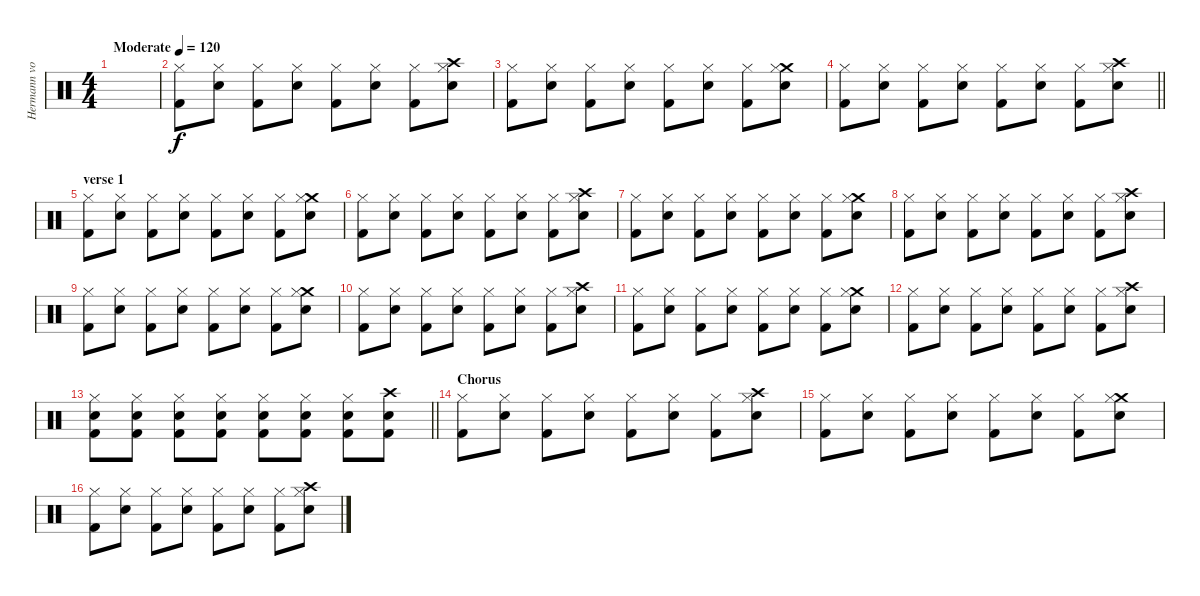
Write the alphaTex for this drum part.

\track ("Hermann von Hinten (Drums)" "Hermann vo") {instrument percussion}
\staff {score}
\articulation defaults
\ts (4 4)
\tempo (120 "Moderate")
\clef neutral
\ks c
|
("Hi-Hat (closed)" "Kick (hit) 2").8 ("Hi-Hat (closed)" "Snare (hit) 2").8 ("Hi-Hat (closed)" "Kick (hit) 2").8 ("Hi-Hat (closed)" "Snare (hit) 2").8 ("Hi-Hat (closed)" "Kick (hit) 2").8 ("Hi-Hat (closed)" "Snare (hit) 2").8 ("Hi-Hat (closed)" "Kick (hit) 2").8 ("Crash high (hit)" "Hi-Hat (closed)" "Snare (hit) 2").8 |
("Hi-Hat (closed)" "Kick (hit) 2").8 ("Hi-Hat (closed)" "Snare (hit) 2").8 ("Hi-Hat (closed)" "Kick (hit) 2").8 ("Hi-Hat (closed)" "Snare (hit) 2").8 ("Hi-Hat (closed)" "Kick (hit) 2").8 ("Hi-Hat (closed)" "Snare (hit) 2").8 ("Hi-Hat (closed)" "Kick (hit) 2").8 ("Crash medium (hit)" "Hi-Hat (closed)" "Snare (hit) 2").8 |
\barLineRight lightlight
("Hi-Hat (closed)" "Kick (hit) 2").8 ("Hi-Hat (closed)" "Snare (hit) 2").8 ("Hi-Hat (closed)" "Kick (hit) 2").8 ("Hi-Hat (closed)" "Snare (hit) 2").8 ("Hi-Hat (closed)" "Kick (hit) 2").8 ("Hi-Hat (closed)" "Snare (hit) 2").8 ("Hi-Hat (closed)" "Kick (hit) 2").8 ("Crash high (hit)" "Hi-Hat (closed)" "Snare (hit) 2").8 |
\section ("" "verse 1")
("Hi-Hat (closed)" "Kick (hit) 2").8 ("Hi-Hat (closed)" "Snare (hit) 2").8 ("Hi-Hat (closed)" "Kick (hit) 2").8 ("Hi-Hat (closed)" "Snare (hit) 2").8 ("Hi-Hat (closed)" "Kick (hit) 2").8 ("Hi-Hat (closed)" "Snare (hit) 2").8 ("Hi-Hat (closed)" "Kick (hit) 2").8 ("Crash medium (hit)" "Hi-Hat (closed)" "Snare (hit) 2").8 |
("Hi-Hat (closed)" "Kick (hit) 2").8 ("Hi-Hat (closed)" "Snare (hit) 2").8 ("Hi-Hat (closed)" "Kick (hit) 2").8 ("Hi-Hat (closed)" "Snare (hit) 2").8 ("Hi-Hat (closed)" "Kick (hit) 2").8 ("Hi-Hat (closed)" "Snare (hit) 2").8 ("Hi-Hat (closed)" "Kick (hit) 2").8 ("Crash high (hit)" "Hi-Hat (closed)" "Snare (hit) 2").8 |
("Hi-Hat (closed)" "Kick (hit) 2").8 ("Hi-Hat (closed)" "Snare (hit) 2").8 ("Hi-Hat (closed)" "Kick (hit) 2").8 ("Hi-Hat (closed)" "Snare (hit) 2").8 ("Hi-Hat (closed)" "Kick (hit) 2").8 ("Hi-Hat (closed)" "Snare (hit) 2").8 ("Hi-Hat (closed)" "Kick (hit) 2").8 ("Crash medium (hit)" "Hi-Hat (closed)" "Snare (hit) 2").8 |
("Hi-Hat (closed)" "Kick (hit) 2").8 ("Hi-Hat (closed)" "Snare (hit) 2").8 ("Hi-Hat (closed)" "Kick (hit) 2").8 ("Hi-Hat (closed)" "Snare (hit) 2").8 ("Hi-Hat (closed)" "Kick (hit) 2").8 ("Hi-Hat (closed)" "Snare (hit) 2").8 ("Hi-Hat (closed)" "Kick (hit) 2").8 ("Crash high (hit)" "Hi-Hat (closed)" "Snare (hit) 2").8 |
("Hi-Hat (closed)" "Kick (hit) 2").8 ("Hi-Hat (closed)" "Snare (hit) 2").8 ("Hi-Hat (closed)" "Kick (hit) 2").8 ("Hi-Hat (closed)" "Snare (hit) 2").8 ("Hi-Hat (closed)" "Kick (hit) 2").8 ("Hi-Hat (closed)" "Snare (hit) 2").8 ("Hi-Hat (closed)" "Kick (hit) 2").8 ("Crash medium (hit)" "Hi-Hat (closed)" "Snare (hit) 2").8 |
("Hi-Hat (closed)" "Kick (hit) 2").8 ("Hi-Hat (closed)" "Snare (hit) 2").8 ("Hi-Hat (closed)" "Kick (hit) 2").8 ("Hi-Hat (closed)" "Snare (hit) 2").8 ("Hi-Hat (closed)" "Kick (hit) 2").8 ("Hi-Hat (closed)" "Snare (hit) 2").8 ("Hi-Hat (closed)" "Kick (hit) 2").8 ("Crash high (hit)" "Hi-Hat (closed)" "Snare (hit) 2").8 |
("Hi-Hat (closed)" "Kick (hit) 2").8 ("Hi-Hat (closed)" "Snare (hit) 2").8 ("Hi-Hat (closed)" "Kick (hit) 2").8 ("Hi-Hat (closed)" "Snare (hit) 2").8 ("Hi-Hat (closed)" "Kick (hit) 2").8 ("Hi-Hat (closed)" "Snare (hit) 2").8 ("Hi-Hat (closed)" "Kick (hit) 2").8 ("Crash medium (hit)" "Hi-Hat (closed)" "Snare (hit) 2").8 |
("Hi-Hat (closed)" "Kick (hit) 2").8 ("Hi-Hat (closed)" "Snare (hit) 2").8 ("Hi-Hat (closed)" "Kick (hit) 2").8 ("Hi-Hat (closed)" "Snare (hit) 2").8 ("Hi-Hat (closed)" "Kick (hit) 2").8 ("Hi-Hat (closed)" "Snare (hit) 2").8 ("Hi-Hat (closed)" "Kick (hit) 2").8 ("Crash high (hit)" "Hi-Hat (closed)" "Snare (hit) 2").8 |
\barLineRight lightlight
("Hi-Hat (closed)" "Snare (hit) 2" "Kick (hit) 2").8 ("Hi-Hat (closed)" "Snare (hit) 2" "Kick (hit) 2").8 ("Hi-Hat (closed)" "Snare (hit) 2" "Kick (hit) 2").8 ("Hi-Hat (closed)" "Snare (hit) 2" "Kick (hit) 2").8 ("Hi-Hat (closed)" "Snare (hit) 2" "Kick (hit) 2").8 ("Hi-Hat (closed)" "Snare (hit) 2" "Kick (hit) 2").8 ("Hi-Hat (closed)" "Snare (hit) 2" "Kick (hit) 2").8 ("Crash high (hit)" "Snare (hit) 2" "Kick (hit) 2").8 |
\section ("" "Chorus")
("Hi-Hat (closed)" "Kick (hit) 2").8 ("Hi-Hat (closed)" "Snare (hit) 2").8 ("Hi-Hat (closed)" "Kick (hit) 2").8 ("Hi-Hat (closed)" "Snare (hit) 2").8 ("Hi-Hat (closed)" "Kick (hit) 2").8 ("Hi-Hat (closed)" "Snare (hit) 2").8 ("Hi-Hat (closed)" "Kick (hit) 2").8 ("Crash high (hit)" "Hi-Hat (closed)" "Snare (hit) 2").8 |
("Hi-Hat (closed)" "Kick (hit) 2").8 ("Hi-Hat (closed)" "Snare (hit) 2").8 ("Hi-Hat (closed)" "Kick (hit) 2").8 ("Hi-Hat (closed)" "Snare (hit) 2").8 ("Hi-Hat (closed)" "Kick (hit) 2").8 ("Hi-Hat (closed)" "Snare (hit) 2").8 ("Hi-Hat (closed)" "Kick (hit) 2").8 ("Crash medium (hit)" "Hi-Hat (closed)" "Snare (hit) 2").8 |
("Hi-Hat (closed)" "Kick (hit) 2").8 ("Hi-Hat (closed)" "Snare (hit) 2").8 ("Hi-Hat (closed)" "Kick (hit) 2").8 ("Hi-Hat (closed)" "Snare (hit) 2").8 ("Hi-Hat (closed)" "Kick (hit) 2").8 ("Hi-Hat (closed)" "Snare (hit) 2").8 ("Hi-Hat (closed)" "Kick (hit) 2").8 ("Crash high (hit)" "Hi-Hat (closed)" "Snare (hit) 2").8
